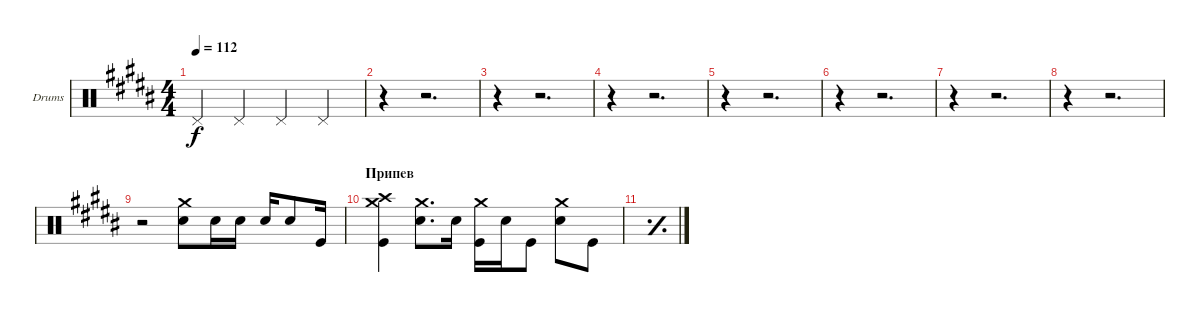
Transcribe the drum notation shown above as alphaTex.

\bracketExtendMode groupsimilarinstruments
\firstSystemTrackNameOrientation horizontal
\otherSystemsTrackNameOrientation horizontal
\track ("Drumkit" "Drums") {instrument percussion}
\staff {score}
\articulation defaults
\ts (4 4)
\tempo 112
\clef neutral
\ks g#minor "Pedal Hi-Hat (hit)".4{dy f} "Pedal Hi-Hat (hit)".4 "Pedal Hi-Hat (hit)".4 "Pedal Hi-Hat (hit)".4
|
r.4 r.2{d} |
r.4 r.2{d} |
r.4 r.2{d} |
r.4 r.2{d} |
r.4 r.2{d} |
r.4 r.2{d} |
r.4 r.2{d} |
r.2 ("Crash medium (hit)" "Snare (hit) 2").8 "Snare (hit) 2".16 "Snare (hit) 2".16 "Snare (hit) 2".16 "Snare (hit) 2".8 "Kick (hit)".16 |
\section ("" "Припев")
("Crash high (hit)" "Kick (hit)" "Crash medium (hit)").4 ("Snare (hit) 2" "Crash medium (hit)").8{d} "Snare (hit) 2".16 ("Kick (hit)" "Crash medium (hit)").16 "Snare (hit) 2".16 "Kick (hit)".8 ("Snare (hit) 2" "Crash medium (hit)").8 "Kick (hit)".8 |
\simile simple
